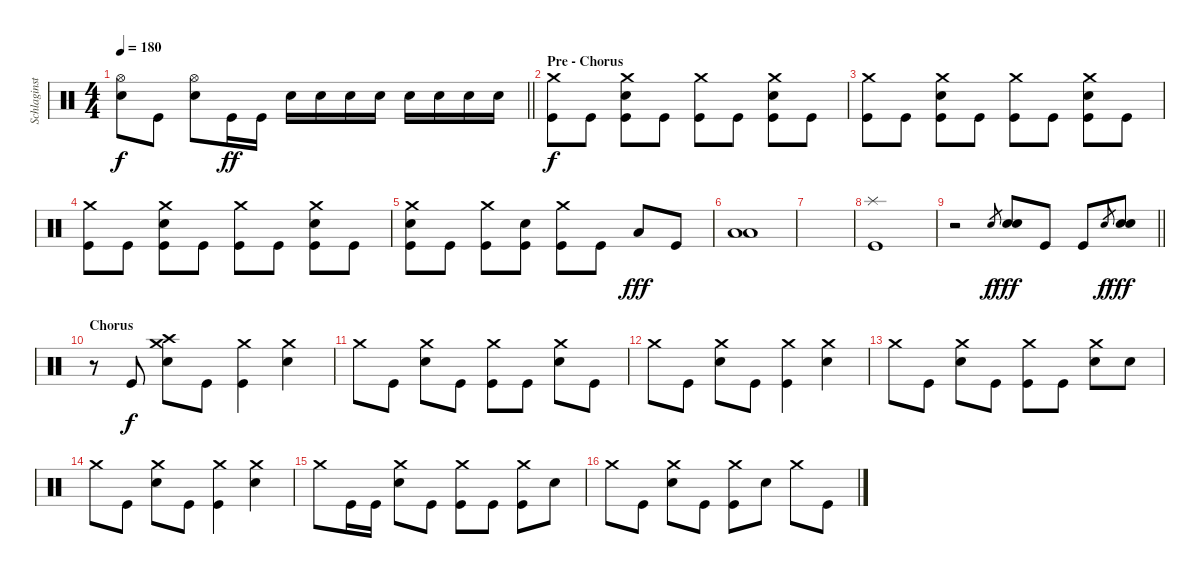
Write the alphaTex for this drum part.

\track ("Schlaginstrumente - Auswahl" "Schlaginst") {instrument percussion}
\staff {score}
\articulation defaults
\ts (4 4)
\tempo 180
\clef neutral
\barLineRight lightlight
\ks c
("Snare (hit) 2" "Hi-Hat (open)").8{dy f} "Kick (hit)".8 ("Snare (hit) 2" "Hi-Hat (open)").8 "Kick (hit)".16{dy ff} "Kick (hit)".16 "Snare (hit) 2".16 "Snare (hit) 2".16 "Snare (hit) 2".16 "Snare (hit) 2".16 "Snare (hit) 2".16 "Snare (hit) 2".16 "Snare (hit) 2".16 "Snare (hit) 2".16 |
\section ("" "Pre - Chorus")
("Crash medium (hit)" "Kick (hit)").8{dy f} "Kick (hit)".8 ("Kick (hit)" "Crash medium (hit)" "Snare (hit) 2").8 "Kick (hit)".8 ("Kick (hit)" "Crash medium (hit)").8 "Kick (hit)".8 ("Kick (hit)" "Crash medium (hit)" "Snare (hit) 2").8 "Kick (hit)".8 |
("Crash medium (hit)" "Kick (hit)").8 "Kick (hit)".8 ("Kick (hit)" "Crash medium (hit)" "Snare (hit) 2").8 "Kick (hit)".8 ("Kick (hit)" "Crash medium (hit)").8 "Kick (hit)".8 ("Kick (hit)" "Crash medium (hit)" "Snare (hit) 2").8 "Kick (hit)".8 |
("Crash medium (hit)" "Kick (hit)").8 "Kick (hit)".8 ("Kick (hit)" "Crash medium (hit)" "Snare (hit) 2").8 "Kick (hit)".8 ("Kick (hit)" "Crash medium (hit)").8 "Kick (hit)".8 ("Kick (hit)" "Crash medium (hit)" "Snare (hit) 2").8 "Kick (hit)".8 |
("Crash medium (hit)" "Kick (hit)" "Snare (hit) 2").8 "Kick (hit)".8 ("Kick (hit)" "Crash medium (hit)").8 ("Kick (hit)" "Snare (hit) 2").8 ("Kick (hit)" "Crash medium (hit)").8 "Kick (hit)".8 "Low Tom (hit)".8{dy fff} "Kick (hit)".8 |
("Low Floor Tom (hit)" "Low Tom (hit)").1 |
|
("Kick (hit)" "Splash (hit)").1 |
\barLineRight lightlight
r.2 "Electric Snare (hit)".8{gr dy f} ("Snare (hit) 2" "Electric Snare (hit)").8{dy fff} "Kick (hit)".8 "Kick (hit)".8 "Electric Snare (hit)".8{gr dy f} ("Snare (hit) 2" "Electric Snare (hit)").8{dy fff} |
\section ("" "Chorus")
r.8 "Kick (hit)".8{dy f} ("Crash medium (hit)" "Crash high (hit)" "Snare (hit) 2").8 "Kick (hit)".8 ("Crash medium (hit)" "Kick (hit)").4 ("Crash medium (hit)" "Snare (hit) 2").4 |
"Crash medium (hit)".8 "Kick (hit)".8 ("Crash medium (hit)" "Snare (hit) 2").8 "Kick (hit)".8 ("Crash medium (hit)" "Kick (hit)").8 "Kick (hit)".8 ("Snare (hit) 2" "Crash medium (hit)").8 "Kick (hit)".8 |
"Crash medium (hit)".8 "Kick (hit)".8 ("Crash medium (hit)" "Snare (hit) 2").8 "Kick (hit)".8 ("Crash medium (hit)" "Kick (hit)").4 ("Crash medium (hit)" "Snare (hit) 2").4 |
"Crash medium (hit)".8 "Kick (hit)".8 ("Crash medium (hit)" "Snare (hit) 2").8 "Kick (hit)".8 ("Crash medium (hit)" "Kick (hit)").8 "Kick (hit)".8 ("Snare (hit) 2" "Crash medium (hit)").8 "Snare (hit) 2".8 |
"Crash medium (hit)".8 "Kick (hit)".8 ("Crash medium (hit)" "Snare (hit) 2").8 "Kick (hit)".8 ("Crash medium (hit)" "Kick (hit)").4 ("Crash medium (hit)" "Snare (hit) 2").4 |
"Crash medium (hit)".8 "Kick (hit)".16 "Kick (hit)".16 ("Crash medium (hit)" "Snare (hit) 2").8 "Kick (hit)".8 ("Crash medium (hit)" "Kick (hit)").8 "Kick (hit)".8 ("Kick (hit)" "Crash medium (hit)").8 "Snare (hit) 2".8 |
"Crash medium (hit)".8 "Kick (hit)".8 ("Crash medium (hit)" "Snare (hit) 2").8 "Kick (hit)".8 ("Crash medium (hit)" "Kick (hit)").8 "Snare (hit) 2".8 "Crash medium (hit)".8 "Kick (hit)".8
